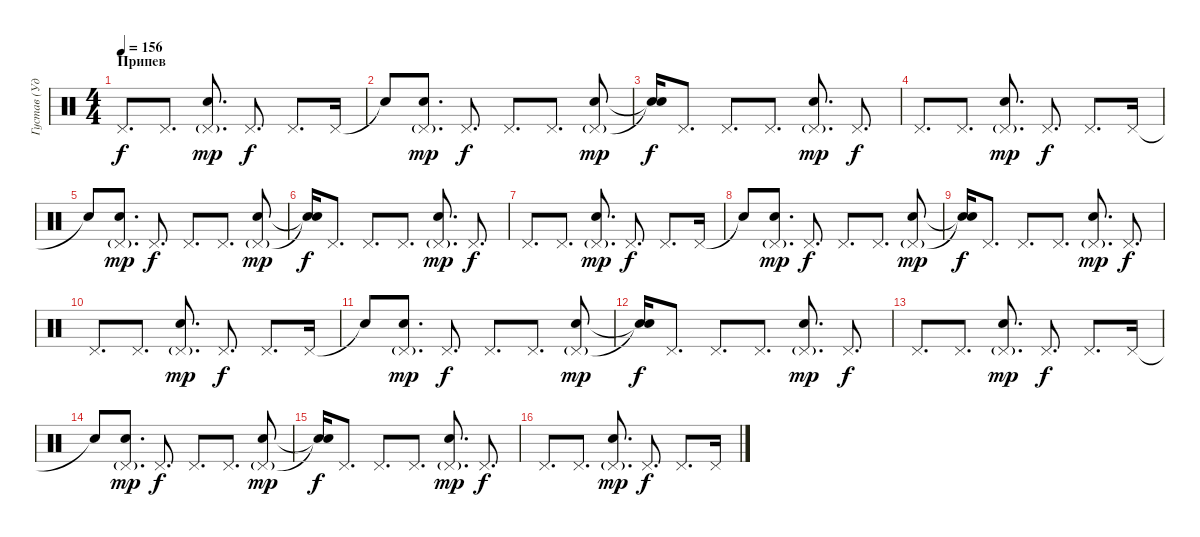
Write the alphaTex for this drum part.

\track ("Густав (Ударные)" "Густав (Уд") {instrument percussion}
\staff {score}
\articulation defaults
\ts (4 4)
\section ("" "Припев")
\tempo 156
\clef neutral
\ks c "Pedal Hi-Hat (hit)".8{d dy f} "Pedal Hi-Hat (hit)".8{d}
("Pedal Hi-Hat (hit)"{g} "Electric Snare (hit)").8{d dy mp} "Pedal Hi-Hat (hit)".8{d dy f} "Pedal Hi-Hat (hit)".8{d} "Pedal Hi-Hat (hit)".16 |
"Snare (hit)"{t}.8 ("Pedal Hi-Hat (hit)"{g} "Electric Snare (hit)").8{d dy mp} "Pedal Hi-Hat (hit)".8{d dy f} "Pedal Hi-Hat (hit)".8{d} "Pedal Hi-Hat (hit)".8{d} ("Pedal Hi-Hat (hit)"{g} "Electric Snare (hit)").8{dy mp} |
("Snare (hit)"{t} "Snare (hit)"{t}).16{dy f} "Pedal Hi-Hat (hit)".8{d} "Pedal Hi-Hat (hit)".8{d} "Pedal Hi-Hat (hit)".8{d} ("Pedal Hi-Hat (hit)"{g} "Electric Snare (hit)").8{d dy mp} "Pedal Hi-Hat (hit)".8{d dy f} |
"Pedal Hi-Hat (hit)".8{d} "Pedal Hi-Hat (hit)".8{d} ("Pedal Hi-Hat (hit)"{g} "Electric Snare (hit)").8{d dy mp} "Pedal Hi-Hat (hit)".8{d dy f} "Pedal Hi-Hat (hit)".8{d} "Pedal Hi-Hat (hit)".16 |
"Snare (hit)"{t}.8 ("Pedal Hi-Hat (hit)"{g} "Electric Snare (hit)").8{d dy mp} "Pedal Hi-Hat (hit)".8{d dy f} "Pedal Hi-Hat (hit)".8{d} "Pedal Hi-Hat (hit)".8{d} ("Pedal Hi-Hat (hit)"{g} "Electric Snare (hit)").8{dy mp} |
("Snare (hit)"{t} "Snare (hit)"{t}).16{dy f} "Pedal Hi-Hat (hit)".8{d} "Pedal Hi-Hat (hit)".8{d} "Pedal Hi-Hat (hit)".8{d} ("Pedal Hi-Hat (hit)"{g} "Electric Snare (hit)").8{d dy mp} "Pedal Hi-Hat (hit)".8{d dy f} |
"Pedal Hi-Hat (hit)".8{d} "Pedal Hi-Hat (hit)".8{d} ("Pedal Hi-Hat (hit)"{g} "Electric Snare (hit)").8{d dy mp} "Pedal Hi-Hat (hit)".8{d dy f} "Pedal Hi-Hat (hit)".8{d} "Pedal Hi-Hat (hit)".16 |
"Snare (hit)"{t}.8 ("Pedal Hi-Hat (hit)"{g} "Electric Snare (hit)").8{d dy mp} "Pedal Hi-Hat (hit)".8{d dy f} "Pedal Hi-Hat (hit)".8{d} "Pedal Hi-Hat (hit)".8{d} ("Pedal Hi-Hat (hit)"{g} "Electric Snare (hit)").8{dy mp} |
("Snare (hit)"{t} "Snare (hit)"{t}).16{dy f} "Pedal Hi-Hat (hit)".8{d} "Pedal Hi-Hat (hit)".8{d} "Pedal Hi-Hat (hit)".8{d} ("Pedal Hi-Hat (hit)"{g} "Electric Snare (hit)").8{d dy mp} "Pedal Hi-Hat (hit)".8{d dy f} |
"Pedal Hi-Hat (hit)".8{d} "Pedal Hi-Hat (hit)".8{d} ("Pedal Hi-Hat (hit)"{g} "Electric Snare (hit)").8{d dy mp} "Pedal Hi-Hat (hit)".8{d dy f} "Pedal Hi-Hat (hit)".8{d} "Pedal Hi-Hat (hit)".16 |
"Snare (hit)"{t}.8 ("Pedal Hi-Hat (hit)"{g} "Electric Snare (hit)").8{d dy mp} "Pedal Hi-Hat (hit)".8{d dy f} "Pedal Hi-Hat (hit)".8{d} "Pedal Hi-Hat (hit)".8{d} ("Pedal Hi-Hat (hit)"{g} "Electric Snare (hit)").8{dy mp} |
("Snare (hit)"{t} "Snare (hit)"{t}).16{dy f} "Pedal Hi-Hat (hit)".8{d} "Pedal Hi-Hat (hit)".8{d} "Pedal Hi-Hat (hit)".8{d} ("Pedal Hi-Hat (hit)"{g} "Electric Snare (hit)").8{d dy mp} "Pedal Hi-Hat (hit)".8{d dy f} |
"Pedal Hi-Hat (hit)".8{d} "Pedal Hi-Hat (hit)".8{d} ("Pedal Hi-Hat (hit)"{g} "Electric Snare (hit)").8{d dy mp} "Pedal Hi-Hat (hit)".8{d dy f} "Pedal Hi-Hat (hit)".8{d} "Pedal Hi-Hat (hit)".16 |
"Snare (hit)"{t}.8 ("Pedal Hi-Hat (hit)"{g} "Electric Snare (hit)").8{d dy mp} "Pedal Hi-Hat (hit)".8{d dy f} "Pedal Hi-Hat (hit)".8{d} "Pedal Hi-Hat (hit)".8{d} ("Pedal Hi-Hat (hit)"{g} "Electric Snare (hit)").8{dy mp} |
("Snare (hit)"{t} "Snare (hit)"{t}).16{dy f} "Pedal Hi-Hat (hit)".8{d} "Pedal Hi-Hat (hit)".8{d} "Pedal Hi-Hat (hit)".8{d} ("Pedal Hi-Hat (hit)"{g} "Electric Snare (hit)").8{d dy mp} "Pedal Hi-Hat (hit)".8{d dy f} |
"Pedal Hi-Hat (hit)".8{d} "Pedal Hi-Hat (hit)".8{d} ("Pedal Hi-Hat (hit)"{g} "Electric Snare (hit)").8{d dy mp} "Pedal Hi-Hat (hit)".8{d dy f} "Pedal Hi-Hat (hit)".8{d} "Pedal Hi-Hat (hit)".16
